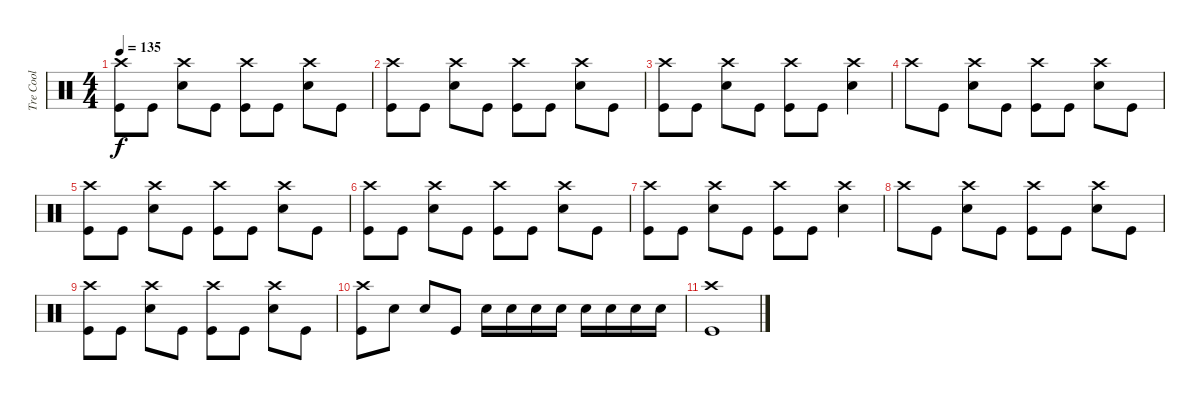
\track ("Tre Cool" "Tre Cool") {instrument percussion}
\staff {score}
\articulation defaults
\ts (4 4)
\tempo 135
\clef neutral
\ks c
("Crash high (hit)" "Kick (hit)").8{dy f} "Kick (hit)".8 ("Crash high (hit)" "Snare (hit) 2").8 "Kick (hit)".8 ("Crash high (hit)" "Kick (hit)").8 "Kick (hit)".8 ("Crash high (hit)" "Snare (hit) 2").8 "Kick (hit)".8 |
("Crash high (hit)" "Kick (hit)").8 "Kick (hit)".8 ("Crash high (hit)" "Snare (hit) 2").8 "Kick (hit)".8 ("Crash high (hit)" "Kick (hit)").8 "Kick (hit)".8 ("Crash high (hit)" "Snare (hit) 2").8 "Kick (hit)".8 |
("Crash high (hit)" "Kick (hit)").8 "Kick (hit)".8 ("Crash high (hit)" "Snare (hit) 2").8 "Kick (hit)".8 ("Crash high (hit)" "Kick (hit)").8 "Kick (hit)".8 ("Crash high (hit)" "Snare (hit) 2").4 |
"Crash high (hit)".8 "Kick (hit)".8 ("Crash high (hit)" "Snare (hit) 2").8 "Kick (hit)".8 ("Crash high (hit)" "Kick (hit)").8 "Kick (hit)".8 ("Crash high (hit)" "Snare (hit) 2").8 "Kick (hit)".8 |
("Crash high (hit)" "Kick (hit)").8 "Kick (hit)".8 ("Crash high (hit)" "Snare (hit) 2").8 "Kick (hit)".8 ("Crash high (hit)" "Kick (hit)").8 "Kick (hit)".8 ("Crash high (hit)" "Snare (hit) 2").8 "Kick (hit)".8 |
("Crash high (hit)" "Kick (hit)").8 "Kick (hit)".8 ("Crash high (hit)" "Snare (hit) 2").8 "Kick (hit)".8 ("Crash high (hit)" "Kick (hit)").8 "Kick (hit)".8 ("Crash high (hit)" "Snare (hit) 2").8 "Kick (hit)".8 |
("Crash high (hit)" "Kick (hit)").8 "Kick (hit)".8 ("Crash high (hit)" "Snare (hit) 2").8 "Kick (hit)".8 ("Crash high (hit)" "Kick (hit)").8 "Kick (hit)".8 ("Crash high (hit)" "Snare (hit) 2").4 |
"Crash high (hit)".8 "Kick (hit)".8 ("Crash high (hit)" "Snare (hit) 2").8 "Kick (hit)".8 ("Crash high (hit)" "Kick (hit)").8 "Kick (hit)".8 ("Crash high (hit)" "Snare (hit) 2").8 "Kick (hit)".8 |
("Crash high (hit)" "Kick (hit)").8 "Kick (hit)".8 ("Crash high (hit)" "Snare (hit) 2").8 "Kick (hit)".8 ("Crash high (hit)" "Kick (hit)").8 "Kick (hit)".8 ("Crash high (hit)" "Snare (hit) 2").8 "Kick (hit)".8 |
("Crash high (hit)" "Kick (hit)").8 "Snare (hit) 2".8 "Snare (hit) 2".8 "Kick (hit)".8 "Snare (hit) 2".16 "Snare (hit) 2".16 "Snare (hit) 2".16 "Snare (hit) 2".16 "Snare (hit) 2".16 "Snare (hit) 2".16 "Snare (hit) 2".16 "Snare (hit) 2".16 |
("Crash high (hit)" "Kick (hit)").1
